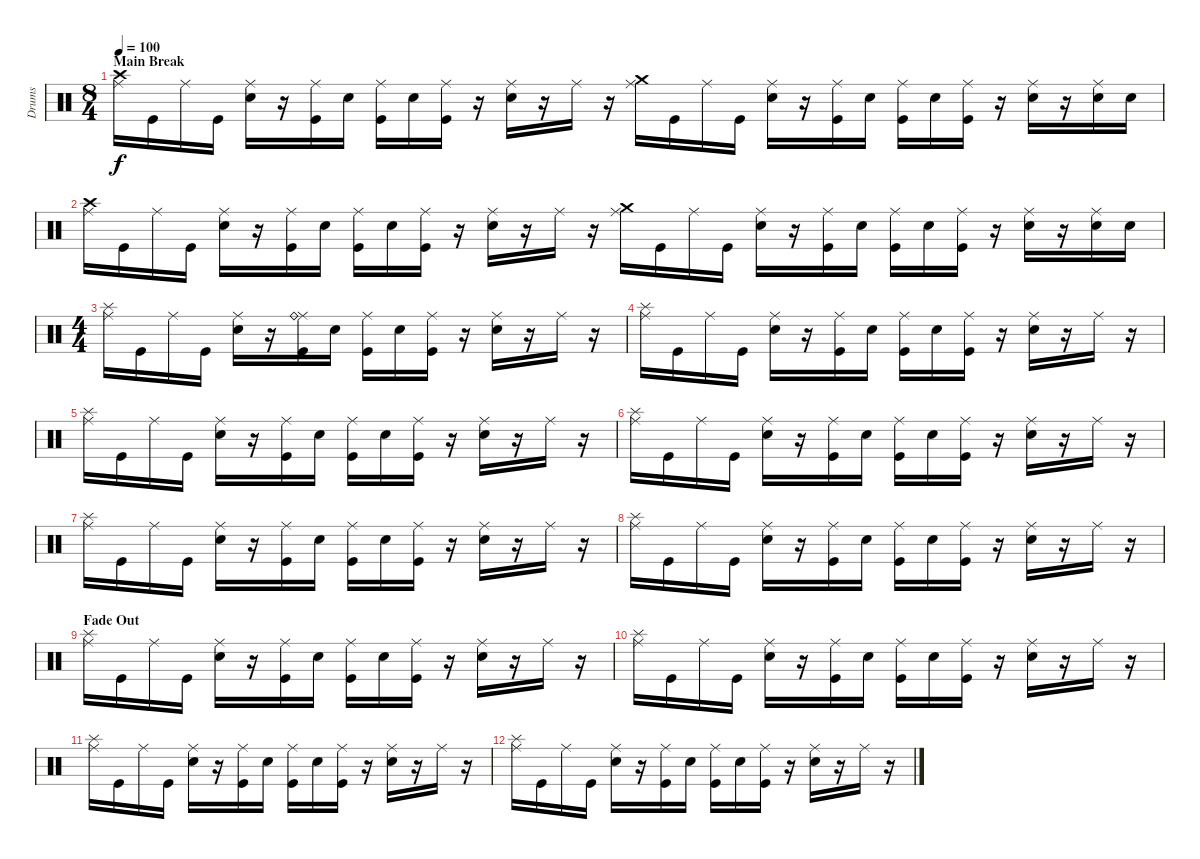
\track ("Drums" "Drums") {instrument percussion}
\staff {score}
\articulation defaults
\ts (8 4)
\section ("" "Main Break")
\tempo 100
\clef neutral
\ks c
("Ride (middle)" "Crash high (hit)").16{dy f} "Kick (hit)".16 "Ride (middle)".16 "Kick (hit)".16 ("Ride (middle)" "Electric Snare (hit)").16 r.16 ("Ride (middle)" "Kick (hit)").16 "Electric Snare (hit)".16 ("Ride (middle)" "Kick (hit)").16 "Electric Snare (hit)".16 ("Ride (middle)" "Kick (hit)").16 r.16 ("Ride (middle)" "Electric Snare (hit)").16 r.16 "Ride (middle)".16 r.16 ("Ride (middle)" "Crash medium (hit)").16 "Kick (hit)".16 "Ride (middle)".16 "Kick (hit)".16 ("Ride (middle)" "Electric Snare (hit)").16 r.16 ("Ride (middle)" "Kick (hit)").16 "Electric Snare (hit)".16 ("Ride (middle)" "Kick (hit)").16 "Electric Snare (hit)".16 ("Ride (middle)" "Kick (hit)").16 r.16 ("Ride (middle)" "Electric Snare (hit)").16 r.16 ("Ride (middle)" "Electric Snare (hit)").16 "Electric Snare (hit)".16 |
("Ride (middle)" "Crash high (hit)").16 "Kick (hit)".16 "Ride (middle)".16 "Kick (hit)".16 ("Ride (middle)" "Electric Snare (hit)").16 r.16 ("Ride (middle)" "Kick (hit)").16 "Electric Snare (hit)".16 ("Ride (middle)" "Kick (hit)").16 "Electric Snare (hit)".16 ("Ride (middle)" "Kick (hit)").16 r.16 ("Ride (middle)" "Electric Snare (hit)").16 r.16 "Ride (middle)".16 r.16 ("Ride (middle)" "Crash medium (hit)").16 "Kick (hit)".16 "Ride (middle)".16 "Kick (hit)".16 ("Ride (middle)" "Electric Snare (hit)").16 r.16 ("Ride (middle)" "Kick (hit)").16 "Electric Snare (hit)".16 ("Ride (middle)" "Kick (hit)").16 "Electric Snare (hit)".16 ("Ride (middle)" "Kick (hit)").16 r.16 ("Ride (middle)" "Electric Snare (hit)").16 r.16 ("Ride (middle)" "Electric Snare (hit)").16 "Electric Snare (hit)".16 |
\ts (4 4)
("Ride (middle)" "Splash (hit)").16 "Kick (hit)".16 "Ride (middle)".16 "Kick (hit)".16 ("Ride (middle)" "Electric Snare (hit)").16 r.16 ("Ride (middle)" "Ride (bell)" "Kick (hit)").16 "Electric Snare (hit)".16 ("Ride (middle)" "Kick (hit)").16 "Electric Snare (hit)".16 ("Ride (middle)" "Kick (hit)").16 r.16 ("Ride (middle)" "Electric Snare (hit)").16 r.16 "Ride (middle)".16 r.16 |
("Ride (middle)" "Splash (hit)").16 "Kick (hit)".16 "Ride (middle)".16 "Kick (hit)".16 ("Ride (middle)" "Electric Snare (hit)").16 r.16 ("Ride (middle)" "Kick (hit)").16 "Electric Snare (hit)".16 ("Ride (middle)" "Kick (hit)").16 "Electric Snare (hit)".16 ("Ride (middle)" "Kick (hit)").16 r.16 ("Ride (middle)" "Electric Snare (hit)").16 r.16 "Ride (middle)".16 r.16 |
("Ride (middle)" "Splash (hit)").16 "Kick (hit)".16 "Ride (middle)".16 "Kick (hit)".16 ("Ride (middle)" "Electric Snare (hit)").16 r.16 ("Ride (middle)" "Kick (hit)").16 "Electric Snare (hit)".16 ("Ride (middle)" "Kick (hit)").16 "Electric Snare (hit)".16 ("Ride (middle)" "Kick (hit)").16 r.16 ("Ride (middle)" "Electric Snare (hit)").16 r.16 "Ride (middle)".16 r.16 |
("Ride (middle)" "Splash (hit)").16{volume 0} "Kick (hit)".16 "Ride (middle)".16 "Kick (hit)".16 ("Ride (middle)" "Electric Snare (hit)").16 r.16 ("Ride (middle)" "Kick (hit)").16 "Electric Snare (hit)".16 ("Ride (middle)" "Kick (hit)").16 "Electric Snare (hit)".16 ("Ride (middle)" "Kick (hit)").16 r.16 ("Ride (middle)" "Electric Snare (hit)").16 r.16 "Ride (middle)".16 r.16 |
("Ride (middle)" "Splash (hit)").16 "Kick (hit)".16 "Ride (middle)".16 "Kick (hit)".16 ("Ride (middle)" "Electric Snare (hit)").16 r.16 ("Ride (middle)" "Kick (hit)").16 "Electric Snare (hit)".16 ("Ride (middle)" "Kick (hit)").16 "Electric Snare (hit)".16 ("Ride (middle)" "Kick (hit)").16 r.16 ("Ride (middle)" "Electric Snare (hit)").16 r.16 "Ride (middle)".16 r.16 |
("Ride (middle)" "Splash (hit)").16 "Kick (hit)".16 "Ride (middle)".16 "Kick (hit)".16 ("Ride (middle)" "Electric Snare (hit)").16 r.16 ("Ride (middle)" "Kick (hit)").16 "Electric Snare (hit)".16 ("Ride (middle)" "Kick (hit)").16 "Electric Snare (hit)".16 ("Ride (middle)" "Kick (hit)").16 r.16 ("Ride (middle)" "Electric Snare (hit)").16 r.16 "Ride (middle)".16 r.16 |
\section ("" "Fade Out")
("Ride (middle)" "Splash (hit)").16 "Kick (hit)".16 "Ride (middle)".16 "Kick (hit)".16 ("Ride (middle)" "Electric Snare (hit)").16 r.16 ("Ride (middle)" "Kick (hit)").16 "Electric Snare (hit)".16 ("Ride (middle)" "Kick (hit)").16 "Electric Snare (hit)".16 ("Ride (middle)" "Kick (hit)").16 r.16 ("Ride (middle)" "Electric Snare (hit)").16 r.16 "Ride (middle)".16 r.16 |
("Ride (middle)" "Splash (hit)").16 "Kick (hit)".16 "Ride (middle)".16 "Kick (hit)".16 ("Ride (middle)" "Electric Snare (hit)").16 r.16 ("Ride (middle)" "Kick (hit)").16 "Electric Snare (hit)".16 ("Ride (middle)" "Kick (hit)").16 "Electric Snare (hit)".16 ("Ride (middle)" "Kick (hit)").16 r.16 ("Ride (middle)" "Electric Snare (hit)").16 r.16 "Ride (middle)".16 r.16 |
("Ride (middle)" "Splash (hit)").16 "Kick (hit)".16 "Ride (middle)".16 "Kick (hit)".16 ("Ride (middle)" "Electric Snare (hit)").16 r.16 ("Ride (middle)" "Kick (hit)").16 "Electric Snare (hit)".16 ("Ride (middle)" "Kick (hit)").16 "Electric Snare (hit)".16 ("Ride (middle)" "Kick (hit)").16 r.16 ("Ride (middle)" "Electric Snare (hit)").16 r.16 "Ride (middle)".16 r.16 |
("Ride (middle)" "Splash (hit)").16 "Kick (hit)".16 "Ride (middle)".16 "Kick (hit)".16 ("Ride (middle)" "Electric Snare (hit)").16 r.16 ("Ride (middle)" "Kick (hit)").16 "Electric Snare (hit)".16 ("Ride (middle)" "Kick (hit)").16 "Electric Snare (hit)".16 ("Ride (middle)" "Kick (hit)").16 r.16 ("Ride (middle)" "Electric Snare (hit)").16 r.16 "Ride (middle)".16 r.16
